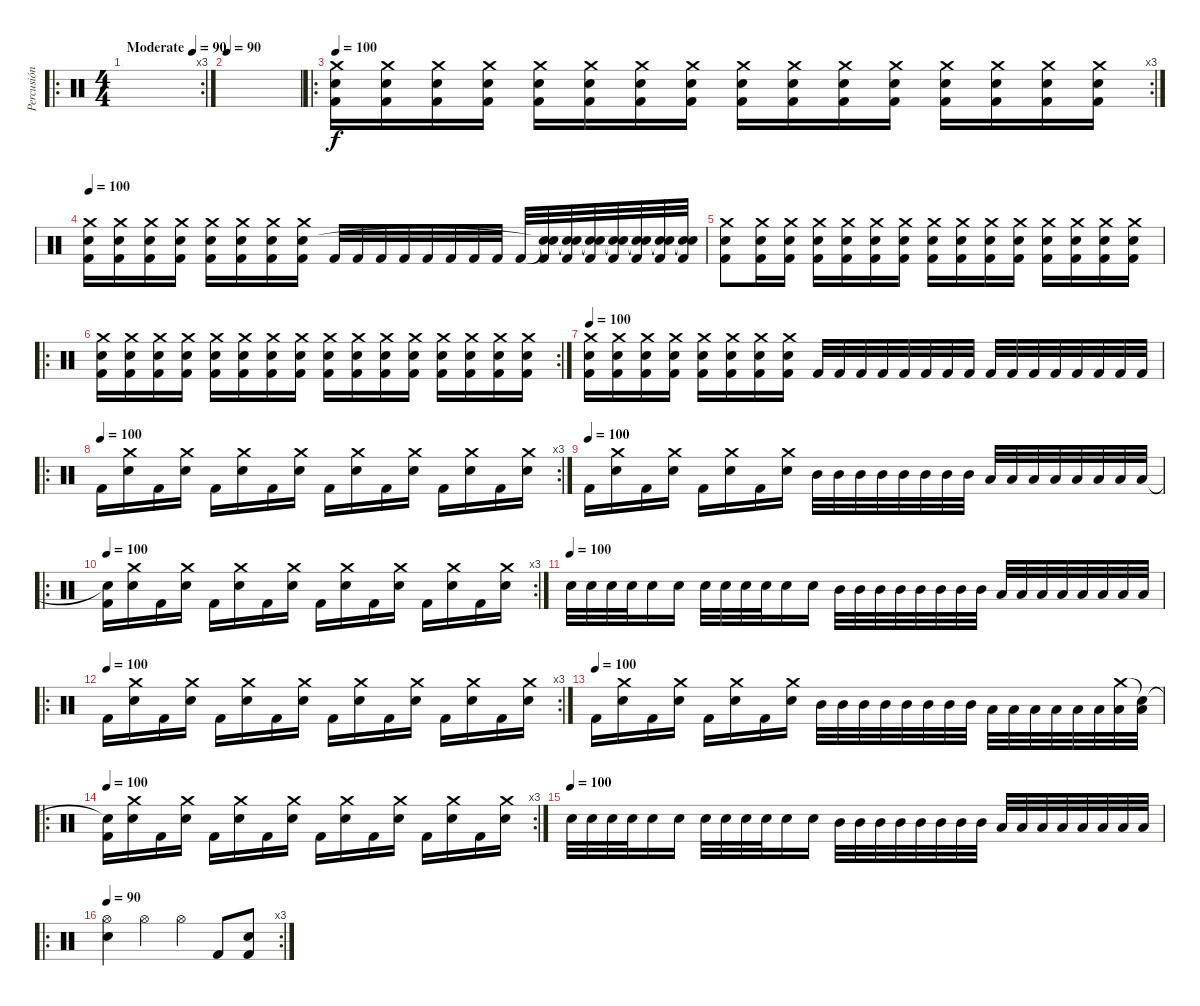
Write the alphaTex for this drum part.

\track ("Percusión" "Percusión") {instrument percussion}
\staff {score}
\articulation defaults
\ro
\rc 3
\ts (4 4)
\tempo (90 "Moderate")
\clef neutral
\ks c
|
\tempo 90
|
\ro
\rc 3
\tempo 100
("Crash medium (hit)" "Snare (hit) 2" "Kick (hit) 2").16 ("Crash medium (hit)" "Snare (hit) 2" "Kick (hit) 2").16 ("Crash medium (hit)" "Snare (hit) 2" "Kick (hit) 2").16 ("Crash medium (hit)" "Snare (hit) 2" "Kick (hit) 2").16 ("Crash medium (hit)" "Snare (hit) 2" "Kick (hit) 2").16 ("Crash medium (hit)" "Snare (hit) 2" "Kick (hit) 2").16 ("Crash medium (hit)" "Snare (hit) 2" "Kick (hit) 2").16 ("Crash medium (hit)" "Snare (hit) 2" "Kick (hit) 2").16 ("Crash medium (hit)" "Snare (hit) 2" "Kick (hit) 2").16 ("Crash medium (hit)" "Snare (hit) 2" "Kick (hit) 2").16 ("Crash medium (hit)" "Snare (hit) 2" "Kick (hit) 2").16 ("Crash medium (hit)" "Snare (hit) 2" "Kick (hit) 2").16 ("Crash medium (hit)" "Snare (hit) 2" "Kick (hit) 2").16 ("Crash medium (hit)" "Snare (hit) 2" "Kick (hit) 2").16 ("Crash medium (hit)" "Snare (hit) 2" "Kick (hit) 2").16 ("Crash medium (hit)" "Snare (hit) 2" "Kick (hit) 2").16 |
\tempo 100
("Crash medium (hit)" "Snare (hit) 2" "Kick (hit) 2").16 ("Crash medium (hit)" "Snare (hit) 2" "Kick (hit) 2").16 ("Crash medium (hit)" "Snare (hit) 2" "Kick (hit) 2").16 ("Crash medium (hit)" "Snare (hit) 2" "Kick (hit) 2").16 ("Crash medium (hit)" "Snare (hit) 2" "Kick (hit) 2").16 ("Crash medium (hit)" "Snare (hit) 2" "Kick (hit) 2").16 ("Crash medium (hit)" "Snare (hit) 2" "Kick (hit) 2").16 ("Crash medium (hit)" "Snare (hit) 2" "Kick (hit) 2").16 "Kick (hit) 2".32 "Kick (hit) 2".32 "Kick (hit) 2".32 "Kick (hit) 2".32 "Kick (hit) 2".32 "Kick (hit) 2".32 "Kick (hit) 2".32 "Kick (hit) 2".32 "Kick (hit) 2".32 ("Snare (hit)"{t} "Snare (hit)"{t} "Kick (hit) 2").32 ("Snare (hit)"{t} "Snare (hit)"{t} "Kick (hit) 2").32 ("Snare (hit)"{t} "Snare (hit)"{t} "Kick (hit) 2").32 ("Snare (hit)"{t} "Snare (hit)"{t} "Kick (hit) 2").32 ("Snare (hit)"{t} "Snare (hit)"{t} "Kick (hit) 2").32 ("Snare (hit)"{t} "Snare (hit)"{t} "Kick (hit) 2").32 ("Snare (hit)"{t} "Snare (hit)"{t} "Kick (hit) 2").32 |
("Crash medium (hit)" "Snare (hit) 2" "Kick (hit) 2").8 ("Crash medium (hit)" "Snare (hit) 2" "Kick (hit) 2").16 ("Crash medium (hit)" "Snare (hit) 2" "Kick (hit) 2").16 ("Crash medium (hit)" "Snare (hit) 2" "Kick (hit) 2").16 ("Crash medium (hit)" "Snare (hit) 2" "Kick (hit) 2").16 ("Crash medium (hit)" "Snare (hit) 2" "Kick (hit) 2").16 ("Crash medium (hit)" "Snare (hit) 2" "Kick (hit) 2").16 ("Crash medium (hit)" "Snare (hit) 2" "Kick (hit) 2").16 ("Crash medium (hit)" "Snare (hit) 2" "Kick (hit) 2").16 ("Crash medium (hit)" "Snare (hit) 2" "Kick (hit) 2").16 ("Crash medium (hit)" "Snare (hit) 2" "Kick (hit) 2").16 ("Crash medium (hit)" "Snare (hit) 2" "Kick (hit) 2").16 ("Crash medium (hit)" "Snare (hit) 2" "Kick (hit) 2").16 ("Crash medium (hit)" "Snare (hit) 2" "Kick (hit) 2").16 ("Crash medium (hit)" "Snare (hit) 2" "Kick (hit) 2").16 |
\ro
\rc 2
("Crash medium (hit)" "Snare (hit) 2" "Kick (hit) 2").16 ("Crash medium (hit)" "Snare (hit) 2" "Kick (hit) 2").16 ("Crash medium (hit)" "Snare (hit) 2" "Kick (hit) 2").16 ("Crash medium (hit)" "Snare (hit) 2" "Kick (hit) 2").16 ("Crash medium (hit)" "Snare (hit) 2" "Kick (hit) 2").16 ("Crash medium (hit)" "Snare (hit) 2" "Kick (hit) 2").16 ("Crash medium (hit)" "Snare (hit) 2" "Kick (hit) 2").16 ("Crash medium (hit)" "Snare (hit) 2" "Kick (hit) 2").16 ("Crash medium (hit)" "Snare (hit) 2" "Kick (hit) 2").16 ("Crash medium (hit)" "Snare (hit) 2" "Kick (hit) 2").16 ("Crash medium (hit)" "Snare (hit) 2" "Kick (hit) 2").16 ("Crash medium (hit)" "Snare (hit) 2" "Kick (hit) 2").16 ("Crash medium (hit)" "Snare (hit) 2" "Kick (hit) 2").16 ("Crash medium (hit)" "Snare (hit) 2" "Kick (hit) 2").16 ("Crash medium (hit)" "Snare (hit) 2" "Kick (hit) 2").16 ("Crash medium (hit)" "Snare (hit) 2" "Kick (hit) 2").16 |
\tempo 100
("Crash medium (hit)" "Snare (hit) 2" "Kick (hit) 2").16 ("Crash medium (hit)" "Snare (hit) 2" "Kick (hit) 2").16 ("Crash medium (hit)" "Snare (hit) 2" "Kick (hit) 2").16 ("Crash medium (hit)" "Snare (hit) 2" "Kick (hit) 2").16 ("Crash medium (hit)" "Snare (hit) 2" "Kick (hit) 2").16 ("Crash medium (hit)" "Snare (hit) 2" "Kick (hit) 2").16 ("Crash medium (hit)" "Snare (hit) 2" "Kick (hit) 2").16 ("Crash medium (hit)" "Snare (hit) 2" "Kick (hit) 2").16 "Kick (hit) 2".32 "Kick (hit) 2".32 "Kick (hit) 2".32 "Kick (hit) 2".32 "Kick (hit) 2".32 "Kick (hit) 2".32 "Kick (hit) 2".32 "Kick (hit) 2".32 "Kick (hit) 2".32 "Kick (hit) 2".32 "Kick (hit) 2".32 "Kick (hit) 2".32 "Kick (hit) 2".32 "Kick (hit) 2".32 "Kick (hit) 2".32 "Kick (hit) 2".32 |
\ro
\rc 3
\tempo (100)
"Kick (hit) 2".16 ("Crash medium (hit)" "Snare (hit) 2").16 "Kick (hit) 2".16 ("Crash medium (hit)" "Snare (hit) 2").16 "Kick (hit) 2".16 ("Crash medium (hit)" "Snare (hit) 2").16 "Kick (hit) 2".16 ("Crash medium (hit)" "Snare (hit) 2").16 "Kick (hit) 2".16 ("Crash medium (hit)" "Snare (hit) 2").16 "Kick (hit) 2".16 ("Crash medium (hit)" "Snare (hit) 2").16 "Kick (hit) 2".16 ("Crash medium (hit)" "Snare (hit) 2").16 "Kick (hit) 2".16 ("Crash medium (hit)" "Snare (hit) 2").16 |
\tempo (100)
"Kick (hit) 2".16 ("Crash medium (hit)" "Snare (hit) 2").16 "Kick (hit) 2".16 ("Crash medium (hit)" "Snare (hit) 2").16 "Kick (hit) 2".16 ("Crash medium (hit)" "Snare (hit) 2").16 "Kick (hit) 2".16 ("Crash medium (hit)" "Snare (hit) 2").16 "Mid Tom (hit)".32 "Mid Tom (hit)".32 "Mid Tom (hit)".32 "Mid Tom (hit)".32 "Mid Tom (hit)".32 "Mid Tom (hit)".32 "Mid Tom (hit)".32 "Mid Tom (hit)".32 "Low Tom (hit)".32 "Low Tom (hit)".32 "Low Tom (hit)".32 "Low Tom (hit)".32 "Low Tom (hit)".32 "Low Tom (hit)".32 "Low Tom (hit)".32 "Low Tom (hit)".32 |
\ro
\rc 3
\tempo 100
("Snare (hit)"{t} "Kick (hit) 2").16 ("Crash medium (hit)" "Snare (hit) 2").16 "Kick (hit) 2".16 ("Crash medium (hit)" "Snare (hit) 2").16 "Kick (hit) 2".16 ("Crash medium (hit)" "Snare (hit) 2").16 "Kick (hit) 2".16 ("Crash medium (hit)" "Snare (hit) 2").16 "Kick (hit) 2".16 ("Crash medium (hit)" "Snare (hit) 2").16 "Kick (hit) 2".16 ("Crash medium (hit)" "Snare (hit) 2").16 "Kick (hit) 2".16 ("Crash medium (hit)" "Snare (hit) 2").16 "Kick (hit) 2".16 ("Crash medium (hit)" "Snare (hit) 2").16 |
\tempo (100)
"Electric Snare (hit)".32 "Electric Snare (hit)".32 "Electric Snare (hit)".32 "Electric Snare (hit)".32 "Snare (hit) 2".16 "Snare (hit) 2".16 "Electric Snare (hit)".32 "Electric Snare (hit)".32 "Electric Snare (hit)".32 "Electric Snare (hit)".32 "Snare (hit) 2".16 "Snare (hit) 2".16 "Mid Tom (hit)".32 "Mid Tom (hit)".32 "Mid Tom (hit)".32 "Mid Tom (hit)".32 "Mid Tom (hit)".32 "Mid Tom (hit)".32 "Mid Tom (hit)".32 "Mid Tom (hit)".32 "Low Tom (hit)".32 "Low Tom (hit)".32 "Low Tom (hit)".32 "Low Tom (hit)".32 "Low Tom (hit)".32 "Low Tom (hit)".32 "Low Tom (hit)".32 "Low Tom (hit)".32 |
\ro
\rc 3
\tempo (100)
"Kick (hit) 2".16 ("Crash medium (hit)" "Snare (hit) 2").16 "Kick (hit) 2".16 ("Crash medium (hit)" "Snare (hit) 2").16 "Kick (hit) 2".16 ("Crash medium (hit)" "Snare (hit) 2").16 "Kick (hit) 2".16 ("Crash medium (hit)" "Snare (hit) 2").16 "Kick (hit) 2".16 ("Crash medium (hit)" "Snare (hit) 2").16 "Kick (hit) 2".16 ("Crash medium (hit)" "Snare (hit) 2").16 "Kick (hit) 2".16 ("Crash medium (hit)" "Snare (hit) 2").16 "Kick (hit) 2".16 ("Crash medium (hit)" "Snare (hit) 2").16 |
\tempo (100)
"Kick (hit) 2".16 ("Crash medium (hit)" "Snare (hit) 2").16 "Kick (hit) 2".16 ("Crash medium (hit)" "Snare (hit) 2").16 "Kick (hit) 2".16 ("Crash medium (hit)" "Snare (hit) 2").16 "Kick (hit) 2".16 ("Crash medium (hit)" "Snare (hit) 2").16 "Mid Tom (hit)".32 "Mid Tom (hit)".32 "Mid Tom (hit)".32 "Mid Tom (hit)".32 "Mid Tom (hit)".32 "Mid Tom (hit)".32 "Mid Tom (hit)".32 "Mid Tom (hit)".32 "Low Tom (hit)".32 "Low Tom (hit)".32 "Low Tom (hit)".32 "Low Tom (hit)".32 "Low Tom (hit)".32 "Low Tom (hit)".32 ("Crash medium (hit)" "Low Tom (hit)").32 ("Snare (hit)"{t} "Low Tom (hit)").32 |
\ro
\rc 3
\tempo 100
("Snare (hit)"{t} "Kick (hit) 2").16 ("Crash medium (hit)" "Snare (hit) 2").16 "Kick (hit) 2".16 ("Crash medium (hit)" "Snare (hit) 2").16 "Kick (hit) 2".16 ("Crash medium (hit)" "Snare (hit) 2").16 "Kick (hit) 2".16 ("Crash medium (hit)" "Snare (hit) 2").16 "Kick (hit) 2".16 ("Crash medium (hit)" "Snare (hit) 2").16 "Kick (hit) 2".16 ("Crash medium (hit)" "Snare (hit) 2").16 "Kick (hit) 2".16 ("Crash medium (hit)" "Snare (hit) 2").16 "Kick (hit) 2".16 ("Crash medium (hit)" "Snare (hit) 2").16 |
\tempo (100)
"Electric Snare (hit)".32 "Electric Snare (hit)".32 "Electric Snare (hit)".32 "Electric Snare (hit)".32 "Snare (hit) 2".16 "Snare (hit) 2".16 "Electric Snare (hit)".32 "Electric Snare (hit)".32 "Electric Snare (hit)".32 "Electric Snare (hit)".32 "Snare (hit) 2".16 "Snare (hit) 2".16 "Mid Tom (hit)".32 "Mid Tom (hit)".32 "Mid Tom (hit)".32 "Mid Tom (hit)".32 "Mid Tom (hit)".32 "Mid Tom (hit)".32 "Mid Tom (hit)".32 "Mid Tom (hit)".32 "Low Tom (hit)".32 "Low Tom (hit)".32 "Low Tom (hit)".32 "Low Tom (hit)".32 "Low Tom (hit)".32 "Low Tom (hit)".32 "Low Tom (hit)".32 "Low Tom (hit)".32 |
\ro
\rc 3
\tempo 90
("Hi-Hat (open)" "Snare (hit) 2").4 "Hi-Hat (open)".4 "Hi-Hat (open)".4 "Kick (hit) 2".8 ("Snare (hit) 2" "Kick (hit) 2").8
